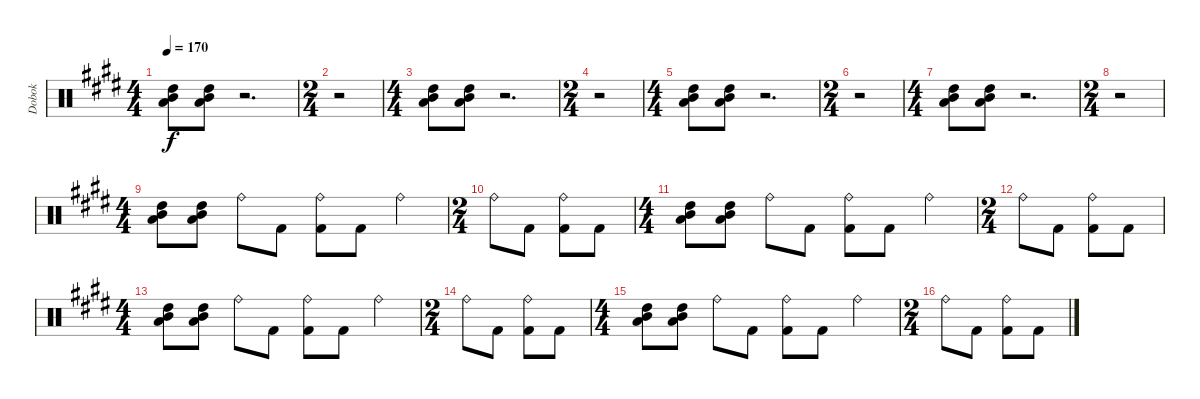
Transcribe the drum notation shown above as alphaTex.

\track ("Dobok" "Dobok") {instrument percussion}
\staff {score}
\articulation defaults
\ts (4 4)
\tempo 170
\clef neutral
\ks c#minor
("High Tom (hit)" "Mid Tom (hit)" "Low Tom (hit)").8{dy f} ("High Tom (hit)" "Mid Tom (hit)" "Low Tom (hit)").8 r.2{d} |
\ts (2 4)
r.2 |
\ts (4 4)
("High Tom (hit)" "Mid Tom (hit)" "Low Tom (hit)").8 ("High Tom (hit)" "Mid Tom (hit)" "Low Tom (hit)").8 r.2{d} |
\ts (2 4)
r.2 |
\ts (4 4)
("High Tom (hit)" "Mid Tom (hit)" "Low Tom (hit)").8 ("High Tom (hit)" "Mid Tom (hit)" "Low Tom (hit)").8 r.2{d} |
\ts (2 4)
r.2 |
\ts (4 4)
("High Tom (hit)" "Mid Tom (hit)" "Low Tom (hit)").8 ("High Tom (hit)" "Mid Tom (hit)" "Low Tom (hit)").8 r.2{d} |
\ts (2 4)
r.2 |
\ts (4 4)
("High Tom (hit)" "Mid Tom (hit)" "Low Tom (hit)").8 ("High Tom (hit)" "Mid Tom (hit)" "Low Tom (hit)").8 "Ride (bell)".8 "Kick (hit) 2".8 ("Ride (bell)" "Kick (hit) 2").8 "Kick (hit) 2".8 "Ride (bell)".4 |
\ts (2 4)
"Ride (bell)".8 "Kick (hit) 2".8 ("Ride (bell)" "Kick (hit) 2").8 "Kick (hit) 2".8 |
\ts (4 4)
("High Tom (hit)" "Mid Tom (hit)" "Low Tom (hit)").8 ("High Tom (hit)" "Mid Tom (hit)" "Low Tom (hit)").8 "Ride (bell)".8 "Kick (hit) 2".8 ("Ride (bell)" "Kick (hit) 2").8 "Kick (hit) 2".8 "Ride (bell)".4 |
\ts (2 4)
"Ride (bell)".8 "Kick (hit) 2".8 ("Ride (bell)" "Kick (hit) 2").8 "Kick (hit) 2".8 |
\ts (4 4)
("High Tom (hit)" "Mid Tom (hit)" "Low Tom (hit)").8 ("High Tom (hit)" "Mid Tom (hit)" "Low Tom (hit)").8 "Ride (bell)".8 "Kick (hit) 2".8 ("Ride (bell)" "Kick (hit) 2").8 "Kick (hit) 2".8 "Ride (bell)".4 |
\ts (2 4)
"Ride (bell)".8 "Kick (hit) 2".8 ("Ride (bell)" "Kick (hit) 2").8 "Kick (hit) 2".8 |
\ts (4 4)
("High Tom (hit)" "Mid Tom (hit)" "Low Tom (hit)").8 ("High Tom (hit)" "Mid Tom (hit)" "Low Tom (hit)").8 "Ride (bell)".8 "Kick (hit) 2".8 ("Ride (bell)" "Kick (hit) 2").8 "Kick (hit) 2".8 "Ride (bell)".4 |
\ts (2 4)
"Ride (bell)".8 "Kick (hit) 2".8 ("Ride (bell)" "Kick (hit) 2").8 "Kick (hit) 2".8
